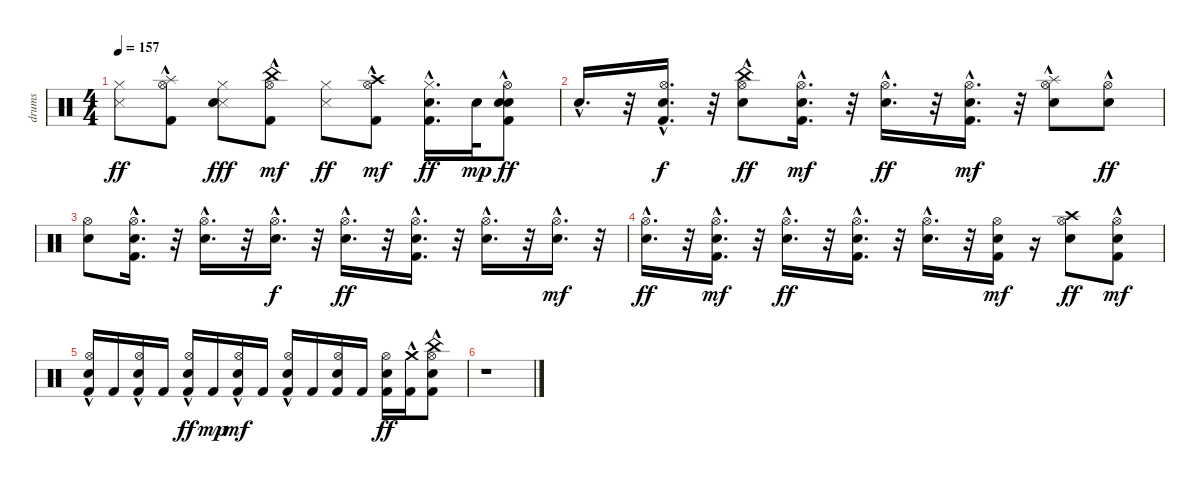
\track ("drums   " "drums   ") {instrument percussion}
\staff {score}
\articulation defaults
\ts (4 4)
\tempo 157
\clef neutral
\ks c
("Snare (side stick) 3" "Hi-Hat (closed)").8{dy ff} ("Kick (hit) 2"{hac} "Hi-Hat (open)"{hac} "Splash (hit)"{hac}).8 ("Snare (side stick) 3" "Hand Clap (hit)" "Hi-Hat (closed)").8{dy fff} ("Kick (hit) 2"{hac} "Hi-Hat (open)"{hac} "China (hit)").8{dy mf} ("Snare (side stick) 3" "Hi-Hat (closed)").8{dy ff} ("Kick (hit) 2" "Hi-Hat (open)"{hac} "Crash high (hit)").8{dy mf} ("Kick (hit) 2"{hac} "Hand Clap (hit)"{hac} "Hi-Hat (closed)").16{d dy ff} "Snare (hit) 2".32{dy mp} ("Snare (hit) 2" "Kick (hit) 2" "Snare (hit) 2" "Hi-Hat (open)"{hac}).8{dy ff} |
"Hand Clap (hit)"{hac}.16{d} r.32 ("Kick (hit) 2"{hac} "Hand Clap (hit)"{hac} "Hi-Hat (open)"{hac}).16{d dy f} r.32 ("Hand Clap (hit)"{hac} "Hi-Hat (open)"{hac} "China (hit)").8{dy ff} ("Kick (hit) 2" "Hand Clap (hit)"{hac} "Hi-Hat (open)"{hac}).16{d dy mf} r.32 ("Hand Clap (hit)"{hac} "Hi-Hat (open)"{hac}).16{d dy ff} r.32 ("Kick (hit) 2" "Hand Clap (hit)"{hac} "Hi-Hat (open)"{hac}).16{d dy mf} r.32 ("Hand Clap (hit)"{hac} "Hi-Hat (open)"{hac} "Splash (hit)"{hac}).8 ("Hand Clap (hit)"{hac} "Hi-Hat (open)").8{dy ff} |
("Hand Clap (hit)" "Hi-Hat (open)").8 ("Kick (hit) 2" "Hand Clap (hit)" "Hi-Hat (open)"{hac}).16{d} r.32 ("Hand Clap (hit)" "Hi-Hat (open)"{hac}).16{d} r.32 ("Hand Clap (hit)" "Hi-Hat (open)"{hac}).16{d dy f} r.32 ("Hand Clap (hit)"{hac} "Hi-Hat (open)"{hac}).16{d dy ff} r.32 ("Kick (hit) 2" "Hand Clap (hit)"{hac} "Hi-Hat (open)"{hac}).16{d} r.32 ("Hand Clap (hit)"{hac} "Hi-Hat (open)"{hac}).16{d} r.32 ("Hand Clap (hit)"{hac} "Hi-Hat (open)"{hac}).16{d dy mf} r.32 |
("Hand Clap (hit)" "Hi-Hat (open)"{hac}).16{d dy ff} r.32 ("Kick (hit) 2"{hac} "Hand Clap (hit)" "Hi-Hat (open)"{hac}).16{d dy mf} r.32 ("Hand Clap (hit)" "Hi-Hat (open)"{hac}).16{d dy ff} r.32 ("Kick (hit) 2"{hac} "Hand Clap (hit)" "Hi-Hat (open)"{hac}).16{d} r.32 ("Hand Clap (hit)" "Hi-Hat (open)"{hac}).16{d} r.32 ("Kick (hit) 2" "Hand Clap (hit)" "Hi-Hat (open)").16{dy mf} r.16 ("Hand Clap (hit)" "Hi-Hat (open)" "Crash high (hit)").8{dy ff} ("Kick (hit) 2"{hac} "Hand Clap (hit)" "Hi-Hat (open)").8{dy mf} |
("Kick (hit) 2" "Hand Clap (hit)"{hac} "Hi-Hat (open)").16 "Kick (hit) 2".16 ("Kick (hit) 2" "Hand Clap (hit)"{hac} "Hi-Hat (open)").16 "Kick (hit) 2".16 ("Kick (hit) 2" "Hand Clap (hit)"{hac} "Hi-Hat (open)").16{dy ff} "Kick (hit) 2".16{dy mp} ("Kick (hit) 2" "Hand Clap (hit)"{hac} "Hi-Hat (open)"{hac}).16{dy mf} "Kick (hit) 2".16 ("Kick (hit) 2" "Hand Clap (hit)" "Hi-Hat (open)"{hac}).16 "Kick (hit) 2".16 ("Kick (hit) 2" "Hand Clap (hit)" "Hi-Hat (open)").16 "Kick (hit) 2".16 ("Kick (hit) 2" "Hand Clap (hit)" "Hi-Hat (open)").16{dy ff} ("Kick (hit) 2" "Crash medium (hit)"{hac}).16 ("Kick (hit) 2"{hac} "Hand Clap (hit)" "Hi-Hat (open)" "China (hit)").8 |
r.1
